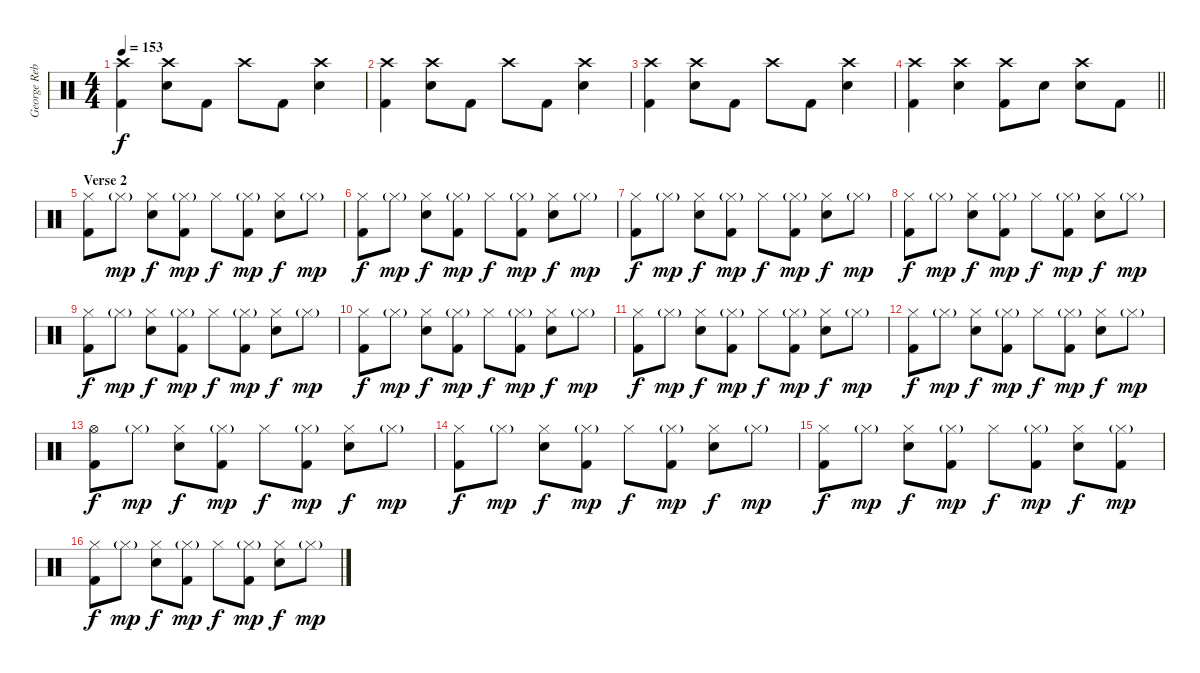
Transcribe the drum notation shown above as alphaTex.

\track ("George Rebelo (Drums)" "George Reb") {instrument percussion}
\staff {score}
\articulation defaults
\ts (4 4)
\tempo 153
\clef neutral
\ks c
("Crash high (hit)" "Kick (hit) 2").4{dy f} ("Crash high (hit)" "Electric Snare (hit)").8 "Kick (hit) 2".8 "Crash high (hit)".8 "Kick (hit) 2".8 ("Crash high (hit)" "Electric Snare (hit)").4 |
("Crash high (hit)" "Kick (hit) 2").4 ("Crash high (hit)" "Electric Snare (hit)").8 "Kick (hit) 2".8 "Crash high (hit)".8 "Kick (hit) 2".8 ("Crash high (hit)" "Electric Snare (hit)").4 |
("Crash high (hit)" "Kick (hit) 2").4 ("Crash high (hit)" "Electric Snare (hit)").8 "Kick (hit) 2".8 "Crash high (hit)".8 "Kick (hit) 2".8 ("Crash high (hit)" "Electric Snare (hit)").4 |
\barLineRight lightlight
("Crash high (hit)" "Kick (hit) 2").4 ("Crash high (hit)" "Electric Snare (hit)").4 ("Crash high (hit)" "Kick (hit) 2").8 "Electric Snare (hit)".8 ("Crash high (hit)" "Electric Snare (hit)").8 "Kick (hit) 2".8 |
\section ("" "Verse 2")
("Hi-Hat (closed)" "Kick (hit) 2").8 "Hi-Hat (closed)"{g}.8{dy mp} ("Hi-Hat (closed)" "Electric Snare (hit)").8{dy f} ("Hi-Hat (closed)"{g} "Kick (hit) 2").8{dy mp} "Hi-Hat (closed)".8{dy f} ("Hi-Hat (closed)"{g} "Kick (hit) 2").8{dy mp} ("Hi-Hat (closed)" "Electric Snare (hit)").8{dy f} "Hi-Hat (closed)"{g}.8{dy mp} |
("Hi-Hat (closed)" "Kick (hit) 2").8{dy f} "Hi-Hat (closed)"{g}.8{dy mp} ("Hi-Hat (closed)" "Electric Snare (hit)").8{dy f} ("Hi-Hat (closed)"{g} "Kick (hit) 2").8{dy mp} "Hi-Hat (closed)".8{dy f} ("Hi-Hat (closed)"{g} "Kick (hit) 2").8{dy mp} ("Hi-Hat (closed)" "Electric Snare (hit)").8{dy f} "Hi-Hat (closed)"{g}.8{dy mp} |
("Hi-Hat (closed)" "Kick (hit) 2").8{dy f} "Hi-Hat (closed)"{g}.8{dy mp} ("Hi-Hat (closed)" "Electric Snare (hit)").8{dy f} ("Hi-Hat (closed)"{g} "Kick (hit) 2").8{dy mp} "Hi-Hat (closed)".8{dy f} ("Hi-Hat (closed)"{g} "Kick (hit) 2").8{dy mp} ("Hi-Hat (closed)" "Electric Snare (hit)").8{dy f} "Hi-Hat (closed)"{g}.8{dy mp} |
("Hi-Hat (closed)" "Kick (hit) 2").8{dy f} "Hi-Hat (closed)"{g}.8{dy mp} ("Hi-Hat (closed)" "Electric Snare (hit)").8{dy f} ("Hi-Hat (closed)"{g} "Kick (hit) 2").8{dy mp} "Hi-Hat (closed)".8{dy f} ("Hi-Hat (closed)"{g} "Kick (hit) 2").8{dy mp} ("Hi-Hat (closed)" "Electric Snare (hit)").8{dy f} "Hi-Hat (closed)"{g}.8{dy mp} |
("Hi-Hat (closed)" "Kick (hit) 2").8{dy f} "Hi-Hat (closed)"{g}.8{dy mp} ("Hi-Hat (closed)" "Electric Snare (hit)").8{dy f} ("Hi-Hat (closed)"{g} "Kick (hit) 2").8{dy mp} "Hi-Hat (closed)".8{dy f} ("Hi-Hat (closed)"{g} "Kick (hit) 2").8{dy mp} ("Hi-Hat (closed)" "Electric Snare (hit)").8{dy f} "Hi-Hat (closed)"{g}.8{dy mp} |
("Hi-Hat (closed)" "Kick (hit) 2").8{dy f} "Hi-Hat (closed)"{g}.8{dy mp} ("Hi-Hat (closed)" "Electric Snare (hit)").8{dy f} ("Hi-Hat (closed)"{g} "Kick (hit) 2").8{dy mp} "Hi-Hat (closed)".8{dy f} ("Hi-Hat (closed)"{g} "Kick (hit) 2").8{dy mp} ("Hi-Hat (closed)" "Electric Snare (hit)").8{dy f} "Hi-Hat (closed)"{g}.8{dy mp} |
("Hi-Hat (closed)" "Kick (hit) 2").8{dy f} "Hi-Hat (closed)"{g}.8{dy mp} ("Hi-Hat (closed)" "Electric Snare (hit)").8{dy f} ("Hi-Hat (closed)"{g} "Kick (hit) 2").8{dy mp} "Hi-Hat (closed)".8{dy f} ("Hi-Hat (closed)"{g} "Kick (hit) 2").8{dy mp} ("Hi-Hat (closed)" "Electric Snare (hit)").8{dy f} "Hi-Hat (closed)"{g}.8{dy mp} |
("Hi-Hat (closed)" "Kick (hit) 2").8{dy f} "Hi-Hat (closed)"{g}.8{dy mp} ("Hi-Hat (closed)" "Electric Snare (hit)").8{dy f} ("Hi-Hat (closed)"{g} "Kick (hit) 2").8{dy mp} "Hi-Hat (closed)".8{dy f} ("Hi-Hat (closed)"{g} "Kick (hit) 2").8{dy mp} ("Hi-Hat (closed)" "Electric Snare (hit)").8{dy f} "Hi-Hat (closed)"{g}.8{dy mp} |
("Hi-Hat (open)" "Kick (hit) 2").8{dy f} "Hi-Hat (closed)"{g}.8{dy mp} ("Hi-Hat (closed)" "Electric Snare (hit)").8{dy f} ("Hi-Hat (closed)"{g} "Kick (hit) 2").8{dy mp} "Hi-Hat (closed)".8{dy f} ("Hi-Hat (closed)"{g} "Kick (hit) 2").8{dy mp} ("Hi-Hat (closed)" "Electric Snare (hit)").8{dy f} "Hi-Hat (closed)"{g}.8{dy mp} |
("Hi-Hat (closed)" "Kick (hit) 2").8{dy f} "Hi-Hat (closed)"{g}.8{dy mp} ("Hi-Hat (closed)" "Electric Snare (hit)").8{dy f} ("Hi-Hat (closed)"{g} "Kick (hit) 2").8{dy mp} "Hi-Hat (closed)".8{dy f} ("Hi-Hat (closed)"{g} "Kick (hit) 2").8{dy mp} ("Hi-Hat (closed)" "Electric Snare (hit)").8{dy f} "Hi-Hat (closed)"{g}.8{dy mp} |
("Hi-Hat (closed)" "Kick (hit) 2").8{dy f} "Hi-Hat (closed)"{g}.8{dy mp} ("Hi-Hat (closed)" "Electric Snare (hit)").8{dy f} ("Hi-Hat (closed)"{g} "Kick (hit) 2").8{dy mp} "Hi-Hat (closed)".8{dy f} ("Hi-Hat (closed)"{g} "Kick (hit) 2").8{dy mp} ("Hi-Hat (closed)" "Electric Snare (hit)").8{dy f} ("Hi-Hat (closed)"{g} "Kick (hit) 2").8{dy mp} |
("Hi-Hat (closed)" "Kick (hit) 2").8{dy f} "Hi-Hat (closed)"{g}.8{dy mp} ("Hi-Hat (closed)" "Electric Snare (hit)").8{dy f} ("Hi-Hat (closed)"{g} "Kick (hit) 2").8{dy mp} "Hi-Hat (closed)".8{dy f} ("Hi-Hat (closed)"{g} "Kick (hit) 2").8{dy mp} ("Hi-Hat (closed)" "Electric Snare (hit)").8{dy f} "Hi-Hat (closed)"{g}.8{dy mp}
